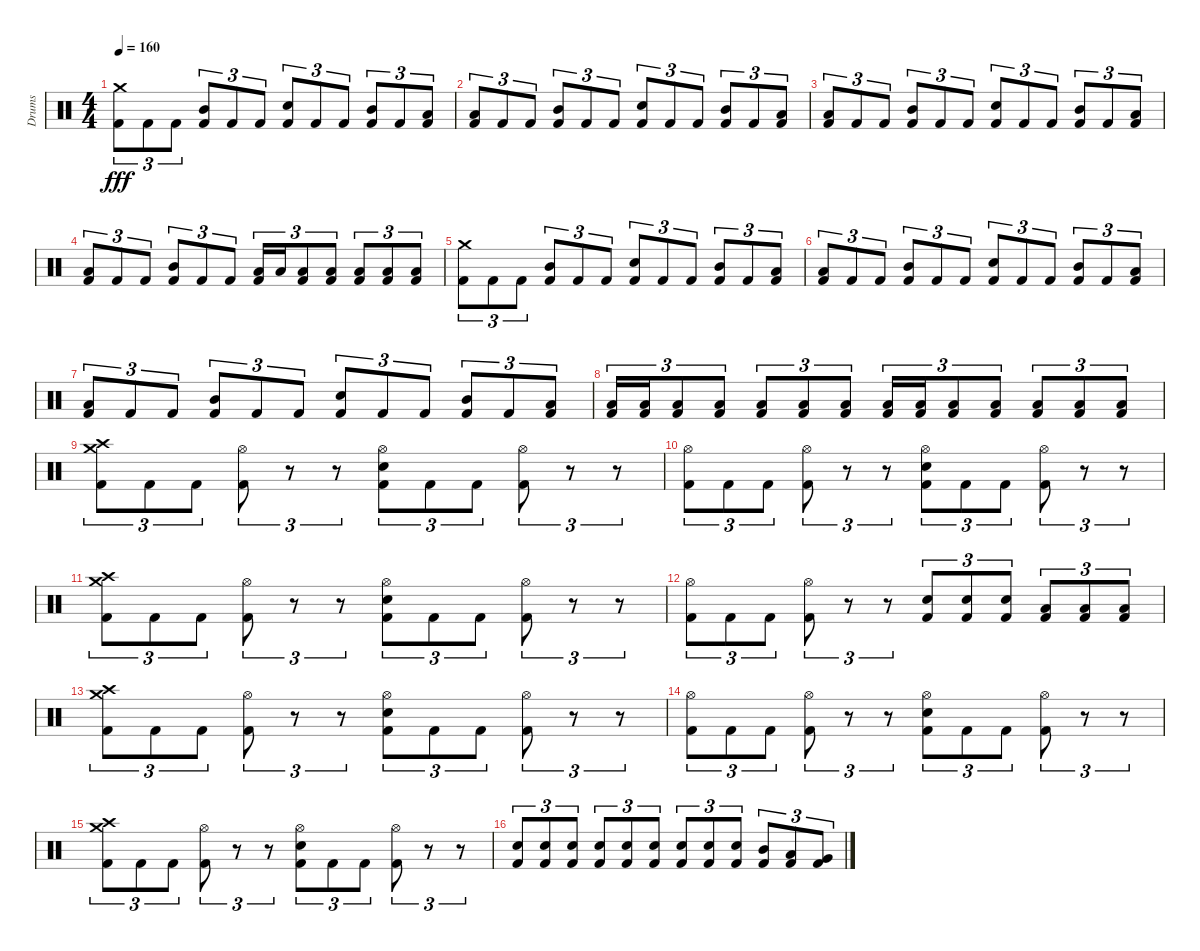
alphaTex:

\track ("Drums" "Drums") {instrument percussion}
\staff {score}
\articulation defaults
\ts (4 4)
\tempo 160
\clef neutral
\ks c
("Crash medium (hit)" "Kick (hit) 2").8{tu (3 2) dy fff} "Kick (hit) 2".8{tu (3 2)} "Kick (hit) 2".8{tu (3 2)} ("Mid Tom (hit)" "Kick (hit) 2").8{tu (3 2)} "Kick (hit) 2".8{tu (3 2)} "Kick (hit) 2".8{tu (3 2)} ("Electric Snare (hit)" "Kick (hit) 2").8{tu (3 2)} "Kick (hit) 2".8{tu (3 2)} "Kick (hit) 2".8{tu (3 2)} ("Mid Tom (hit)" "Kick (hit) 2").8{tu (3 2)} "Kick (hit) 2".8{tu (3 2)} ("Low Floor Tom (hit)" "Kick (hit) 2").8{tu (3 2)} |
("Low Floor Tom (hit)" "Kick (hit) 2").8{tu (3 2)} "Kick (hit) 2".8{tu (3 2)} "Kick (hit) 2".8{tu (3 2)} ("Mid Tom (hit)" "Kick (hit) 2").8{tu (3 2)} "Kick (hit) 2".8{tu (3 2)} "Kick (hit) 2".8{tu (3 2)} ("Electric Snare (hit)" "Kick (hit) 2").8{tu (3 2)} "Kick (hit) 2".8{tu (3 2)} "Kick (hit) 2".8{tu (3 2)} ("Mid Tom (hit)" "Kick (hit) 2").8{tu (3 2)} "Kick (hit) 2".8{tu (3 2)} ("Low Floor Tom (hit)" "Kick (hit) 2").8{tu (3 2)} |
("Low Floor Tom (hit)" "Kick (hit) 2").8{tu (3 2)} "Kick (hit) 2".8{tu (3 2)} "Kick (hit) 2".8{tu (3 2)} ("Mid Tom (hit)" "Kick (hit) 2").8{tu (3 2)} "Kick (hit) 2".8{tu (3 2)} "Kick (hit) 2".8{tu (3 2)} ("Electric Snare (hit)" "Kick (hit) 2").8{tu (3 2)} "Kick (hit) 2".8{tu (3 2)} "Kick (hit) 2".8{tu (3 2)} ("Mid Tom (hit)" "Kick (hit) 2").8{tu (3 2)} "Kick (hit) 2".8{tu (3 2)} ("Low Floor Tom (hit)" "Kick (hit) 2").8{tu (3 2)} |
("Low Floor Tom (hit)" "Kick (hit) 2").8{tu (3 2)} "Kick (hit) 2".8{tu (3 2)} "Kick (hit) 2".8{tu (3 2)} ("Mid Tom (hit)" "Kick (hit) 2").8{tu (3 2)} "Kick (hit) 2".8{tu (3 2)} "Kick (hit) 2".8{tu (3 2)} ("Low Tom (hit)" "Kick (hit) 2").16{tu (3 2)} "Low Tom (hit)".16{tu (3 2)} ("Low Tom (hit)" "Kick (hit) 2").8{tu (3 2)} ("Low Tom (hit)" "Kick (hit) 2").8{tu (3 2)} ("Low Floor Tom (hit)" "Kick (hit) 2").8{tu (3 2)} ("Low Floor Tom (hit)" "Kick (hit) 2").8{tu (3 2)} ("Low Floor Tom (hit)" "Kick (hit) 2").8{tu (3 2)} |
("Crash medium (hit)" "Kick (hit) 2").8{tu (3 2)} "Kick (hit) 2".8{tu (3 2)} "Kick (hit) 2".8{tu (3 2)} ("Mid Tom (hit)" "Kick (hit) 2").8{tu (3 2)} "Kick (hit) 2".8{tu (3 2)} "Kick (hit) 2".8{tu (3 2)} ("Electric Snare (hit)" "Kick (hit) 2").8{tu (3 2)} "Kick (hit) 2".8{tu (3 2)} "Kick (hit) 2".8{tu (3 2)} ("Mid Tom (hit)" "Kick (hit) 2").8{tu (3 2)} "Kick (hit) 2".8{tu (3 2)} ("Low Floor Tom (hit)" "Kick (hit) 2").8{tu (3 2)} |
("Low Floor Tom (hit)" "Kick (hit) 2").8{tu (3 2)} "Kick (hit) 2".8{tu (3 2)} "Kick (hit) 2".8{tu (3 2)} ("Mid Tom (hit)" "Kick (hit) 2").8{tu (3 2)} "Kick (hit) 2".8{tu (3 2)} "Kick (hit) 2".8{tu (3 2)} ("Electric Snare (hit)" "Kick (hit) 2").8{tu (3 2)} "Kick (hit) 2".8{tu (3 2)} "Kick (hit) 2".8{tu (3 2)} ("Mid Tom (hit)" "Kick (hit) 2").8{tu (3 2)} "Kick (hit) 2".8{tu (3 2)} ("Low Floor Tom (hit)" "Kick (hit) 2").8{tu (3 2)} |
("Low Floor Tom (hit)" "Kick (hit) 2").8{tu (3 2)} "Kick (hit) 2".8{tu (3 2)} "Kick (hit) 2".8{tu (3 2)} ("Mid Tom (hit)" "Kick (hit) 2").8{tu (3 2)} "Kick (hit) 2".8{tu (3 2)} "Kick (hit) 2".8{tu (3 2)} ("Electric Snare (hit)" "Kick (hit) 2").8{tu (3 2)} "Kick (hit) 2".8{tu (3 2)} "Kick (hit) 2".8{tu (3 2)} ("Mid Tom (hit)" "Kick (hit) 2").8{tu (3 2)} "Kick (hit) 2".8{tu (3 2)} ("Low Floor Tom (hit)" "Kick (hit) 2").8{tu (3 2)} |
("Low Tom (hit)" "Kick (hit) 2").16{tu (3 2)} ("Low Tom (hit)" "Kick (hit) 2").16{tu (3 2)} ("Low Tom (hit)" "Kick (hit) 2").8{tu (3 2)} ("Low Tom (hit)" "Kick (hit) 2").8{tu (3 2)} ("Low Floor Tom (hit)" "Kick (hit) 2").8{tu (3 2)} ("Low Floor Tom (hit)" "Kick (hit) 2").8{tu (3 2)} ("Low Floor Tom (hit)" "Kick (hit) 2").8{tu (3 2)} ("Low Tom (hit)" "Kick (hit) 2").16{tu (3 2)} ("Low Tom (hit)" "Kick (hit) 2").16{tu (3 2)} ("Low Tom (hit)" "Kick (hit) 2").8{tu (3 2)} ("Low Tom (hit)" "Kick (hit) 2").8{tu (3 2)} ("Low Floor Tom (hit)" "Kick (hit) 2").8{tu (3 2)} ("Low Floor Tom (hit)" "Kick (hit) 2").8{tu (3 2)} ("Low Floor Tom (hit)" "Kick (hit) 2").8{tu (3 2)} |
("Crash medium (hit)" "Crash high (hit)" "Kick (hit) 2").8{tu (3 2)} "Kick (hit) 2".8{tu (3 2)} "Kick (hit) 2".8{tu (3 2)} ("Hi-Hat (open)" "Kick (hit) 2").8{tu (3 2)} r.8{tu (3 2)} r.8{tu (3 2)} ("Hi-Hat (open)" "Electric Snare (hit)" "Kick (hit) 2").8{tu (3 2)} "Kick (hit) 2".8{tu (3 2)} "Kick (hit) 2".8{tu (3 2)} ("Hi-Hat (open)" "Kick (hit) 2").8{tu (3 2)} r.8{tu (3 2)} r.8{tu (3 2)} |
("Hi-Hat (open)" "Kick (hit) 2").8{tu (3 2)} "Kick (hit) 2".8{tu (3 2)} "Kick (hit) 2".8{tu (3 2)} ("Hi-Hat (open)" "Kick (hit) 2").8{tu (3 2)} r.8{tu (3 2)} r.8{tu (3 2)} ("Hi-Hat (open)" "Electric Snare (hit)" "Kick (hit) 2").8{tu (3 2)} "Kick (hit) 2".8{tu (3 2)} "Kick (hit) 2".8{tu (3 2)} ("Hi-Hat (open)" "Kick (hit) 2").8{tu (3 2)} r.8{tu (3 2)} r.8{tu (3 2)} |
("Crash medium (hit)" "Crash high (hit)" "Kick (hit) 2").8{tu (3 2)} "Kick (hit) 2".8{tu (3 2)} "Kick (hit) 2".8{tu (3 2)} ("Hi-Hat (open)" "Kick (hit) 2").8{tu (3 2)} r.8{tu (3 2)} r.8{tu (3 2)} ("Hi-Hat (open)" "Electric Snare (hit)" "Kick (hit) 2").8{tu (3 2)} "Kick (hit) 2".8{tu (3 2)} "Kick (hit) 2".8{tu (3 2)} ("Hi-Hat (open)" "Kick (hit) 2").8{tu (3 2)} r.8{tu (3 2)} r.8{tu (3 2)} |
("Hi-Hat (open)" "Kick (hit) 2").8{tu (3 2)} "Kick (hit) 2".8{tu (3 2)} "Kick (hit) 2".8{tu (3 2)} ("Hi-Hat (open)" "Kick (hit) 2").8{tu (3 2)} r.8{tu (3 2)} r.8{tu (3 2)} ("Electric Snare (hit)" "Kick (hit) 2").8{tu (3 2)} ("Electric Snare (hit)" "Kick (hit) 2").8{tu (3 2)} ("Electric Snare (hit)" "Kick (hit) 2").8{tu (3 2)} ("Low Floor Tom (hit)" "Kick (hit) 2").8{tu (3 2)} ("Low Floor Tom (hit)" "Kick (hit) 2").8{tu (3 2)} ("Low Floor Tom (hit)" "Kick (hit) 2").8{tu (3 2)} |
("Crash medium (hit)" "Crash high (hit)" "Kick (hit) 2").8{tu (3 2)} "Kick (hit) 2".8{tu (3 2)} "Kick (hit) 2".8{tu (3 2)} ("Hi-Hat (open)" "Kick (hit) 2").8{tu (3 2)} r.8{tu (3 2)} r.8{tu (3 2)} ("Hi-Hat (open)" "Electric Snare (hit)" "Kick (hit) 2").8{tu (3 2)} "Kick (hit) 2".8{tu (3 2)} "Kick (hit) 2".8{tu (3 2)} ("Hi-Hat (open)" "Kick (hit) 2").8{tu (3 2)} r.8{tu (3 2)} r.8{tu (3 2)} |
("Hi-Hat (open)" "Kick (hit) 2").8{tu (3 2)} "Kick (hit) 2".8{tu (3 2)} "Kick (hit) 2".8{tu (3 2)} ("Hi-Hat (open)" "Kick (hit) 2").8{tu (3 2)} r.8{tu (3 2)} r.8{tu (3 2)} ("Hi-Hat (open)" "Electric Snare (hit)" "Kick (hit) 2").8{tu (3 2)} "Kick (hit) 2".8{tu (3 2)} "Kick (hit) 2".8{tu (3 2)} ("Hi-Hat (open)" "Kick (hit) 2").8{tu (3 2)} r.8{tu (3 2)} r.8{tu (3 2)} |
("Crash medium (hit)" "Crash high (hit)" "Kick (hit) 2").8{tu (3 2)} "Kick (hit) 2".8{tu (3 2)} "Kick (hit) 2".8{tu (3 2)} ("Hi-Hat (open)" "Kick (hit) 2").8{tu (3 2)} r.8{tu (3 2)} r.8{tu (3 2)} ("Hi-Hat (open)" "Electric Snare (hit)" "Kick (hit) 2").8{tu (3 2)} "Kick (hit) 2".8{tu (3 2)} "Kick (hit) 2".8{tu (3 2)} ("Hi-Hat (open)" "Kick (hit) 2").8{tu (3 2)} r.8{tu (3 2)} r.8{tu (3 2)} |
("Electric Snare (hit)" "Kick (hit) 2").8{tu (3 2)} ("Electric Snare (hit)" "Kick (hit) 2").8{tu (3 2)} ("Electric Snare (hit)" "Kick (hit) 2").8{tu (3 2)} ("Electric Snare (hit)" "Kick (hit) 2").8{tu (3 2)} ("Electric Snare (hit)" "Kick (hit) 2").8{tu (3 2)} ("Electric Snare (hit)" "Kick (hit) 2").8{tu (3 2)} ("Electric Snare (hit)" "Kick (hit) 2").8{tu (3 2)} ("Electric Snare (hit)" "Kick (hit) 2").8{tu (3 2)} ("Electric Snare (hit)" "Kick (hit) 2").8{tu (3 2)} ("Mid Tom (hit)" "Kick (hit) 2").8{tu (3 2)} ("Low Tom (hit)" "Kick (hit) 2").8{tu (3 2)} ("Very Low Tom (hit)" "Kick (hit) 2").8{tu (3 2)}
